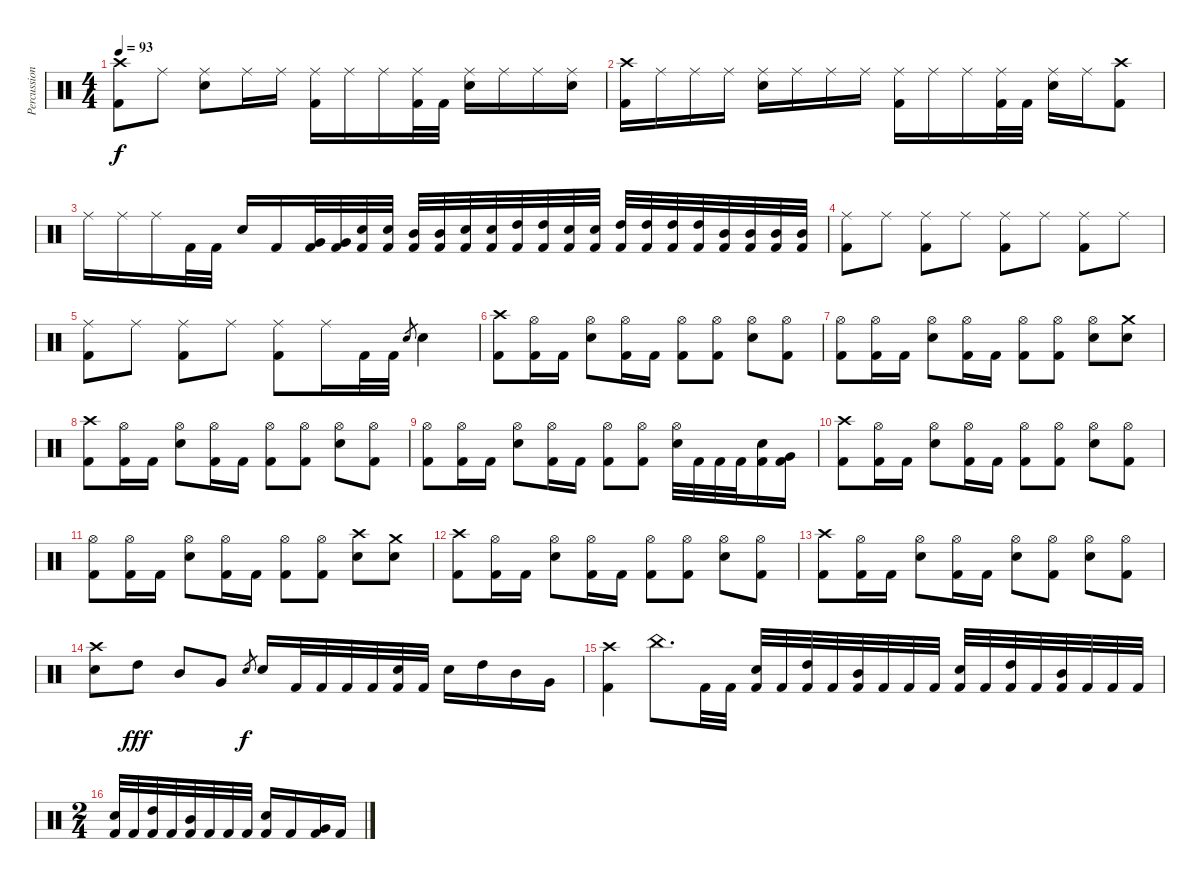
\track ("Percussions" "Percussion") {instrument percussion}
\staff {score}
\articulation defaults
\ts (4 4)
\tempo 93
\clef neutral
\ks c
("Crash high (hit)" "Kick (hit) 2").8{dy f} "Ride (middle)".8 ("Ride (middle)" "Electric Snare (hit)").8 "Ride (middle)".16 "Ride (middle)".16 ("Ride (middle)" "Kick (hit) 2").16 "Ride (middle)".16 "Ride (middle)".16 ("Ride (middle)" "Kick (hit) 2").32 "Kick (hit) 2".32 ("Ride (middle)" "Electric Snare (hit)").16 "Ride (middle)".16 "Ride (middle)".16 ("Ride (middle)" "Electric Snare (hit)").16 |
("Crash high (hit)" "Kick (hit) 2").16 "Ride (middle)".16 "Ride (middle)".16 "Ride (middle)".16 ("Ride (middle)" "Electric Snare (hit)").16 "Ride (middle)".16 "Ride (middle)".16 "Ride (middle)".16 ("Ride (middle)" "Kick (hit) 2").16 "Ride (middle)".16 "Ride (middle)".16 ("Ride (middle)" "Kick (hit) 2").32 "Kick (hit) 2".32 ("Ride (middle)" "Electric Snare (hit)").16 "Ride (middle)".16 ("Crash high (hit)" "Kick (hit) 2").8 |
"Ride (middle)".16 "Ride (middle)".16 "Ride (middle)".16 "Kick (hit) 2".32 "Kick (hit) 2".32 "Electric Snare (hit)".16 "Kick (hit) 2".16 ("Very Low Tom (hit)" "Kick (hit) 2").32 ("Very Low Tom (hit)" "Kick (hit) 2").32 ("Electric Snare (hit)" "Kick (hit) 2").32 ("Electric Snare (hit)" "Kick (hit) 2").32 ("Mid Tom (hit)" "Kick (hit) 2").32 ("Mid Tom (hit)" "Kick (hit) 2").32 ("Electric Snare (hit)" "Kick (hit) 2").32 ("Electric Snare (hit)" "Kick (hit) 2").32 ("High Tom (hit)" "Kick (hit) 2").32 ("High Tom (hit)" "Kick (hit) 2").32 ("Electric Snare (hit)" "Kick (hit) 2").32 ("Electric Snare (hit)" "Kick (hit) 2").32 ("High Tom (hit)" "Kick (hit) 2").32 ("High Tom (hit)" "Kick (hit) 2").32 ("High Tom (hit)" "Kick (hit) 2").32 ("High Tom (hit)" "Kick (hit) 2").32 ("Mid Tom (hit)" "Kick (hit) 2").32 ("Mid Tom (hit)" "Kick (hit) 2").32 ("Mid Tom (hit)" "Kick (hit) 2").32 ("Mid Tom (hit)" "Kick (hit) 2").32 |
("Ride (middle)" "Kick (hit) 2").8 "Ride (middle)".8 ("Ride (middle)" "Kick (hit) 2").8 "Ride (middle)".8 ("Ride (middle)" "Kick (hit) 2").8 "Ride (middle)".8 ("Ride (middle)" "Kick (hit) 2").8 "Ride (middle)".8 |
("Ride (middle)" "Kick (hit) 2").8 "Ride (middle)".8 ("Ride (middle)" "Kick (hit) 2").8 "Ride (middle)".8 ("Ride (middle)" "Kick (hit) 2").8 "Ride (middle)".16 "Kick (hit) 2".32 "Kick (hit) 2".32 "Electric Snare (hit)".8{gr} "Electric Snare (hit)".4 |
("Crash high (hit)" "Kick (hit) 2").8 ("Hi-Hat (open)" "Kick (hit) 2").16 "Kick (hit) 2".16 ("Hi-Hat (open)" "Electric Snare (hit)").8 ("Hi-Hat (open)" "Kick (hit) 2").16 "Kick (hit) 2".16 ("Hi-Hat (open)" "Kick (hit) 2").8 ("Hi-Hat (open)" "Kick (hit) 2").8 ("Hi-Hat (open)" "Electric Snare (hit)").8 ("Hi-Hat (open)" "Kick (hit) 2").8 |
("Hi-Hat (open)" "Kick (hit) 2").8 ("Hi-Hat (open)" "Kick (hit) 2").16 "Kick (hit) 2".16 ("Hi-Hat (open)" "Electric Snare (hit)").8 ("Hi-Hat (open)" "Kick (hit) 2").16 "Kick (hit) 2".16 ("Hi-Hat (open)" "Kick (hit) 2").8 ("Hi-Hat (open)" "Kick (hit) 2").8 ("Hi-Hat (open)" "Electric Snare (hit)").8 ("Crash medium (hit)" "Electric Snare (hit)").8 |
("Crash high (hit)" "Kick (hit) 2").8 ("Hi-Hat (open)" "Kick (hit) 2").16 "Kick (hit) 2".16 ("Hi-Hat (open)" "Electric Snare (hit)").8 ("Hi-Hat (open)" "Kick (hit) 2").16 "Kick (hit) 2".16 ("Hi-Hat (open)" "Kick (hit) 2").8 ("Hi-Hat (open)" "Kick (hit) 2").8 ("Hi-Hat (open)" "Electric Snare (hit)").8 ("Hi-Hat (open)" "Kick (hit) 2").8 |
("Hi-Hat (open)" "Kick (hit) 2").8 ("Hi-Hat (open)" "Kick (hit) 2").16 "Kick (hit) 2".16 ("Hi-Hat (open)" "Electric Snare (hit)").8 ("Hi-Hat (open)" "Kick (hit) 2").16 "Kick (hit) 2".16 ("Hi-Hat (open)" "Kick (hit) 2").8 ("Hi-Hat (open)" "Kick (hit) 2").8 ("Hi-Hat (open)" "Electric Snare (hit)").32 "Kick (hit) 2".32 "Kick (hit) 2".32 "Kick (hit) 2".32 ("Electric Snare (hit)" "Kick (hit) 2").16 ("Very Low Tom (hit)" "Kick (hit) 2").16 |
("Crash high (hit)" "Kick (hit) 2").8 ("Hi-Hat (open)" "Kick (hit) 2").16 "Kick (hit) 2".16 ("Hi-Hat (open)" "Electric Snare (hit)").8 ("Hi-Hat (open)" "Kick (hit) 2").16 "Kick (hit) 2".16 ("Hi-Hat (open)" "Kick (hit) 2").8 ("Hi-Hat (open)" "Kick (hit) 2").8 ("Hi-Hat (open)" "Electric Snare (hit)").8 ("Hi-Hat (open)" "Kick (hit) 2").8 |
("Hi-Hat (open)" "Kick (hit) 2").8 ("Hi-Hat (open)" "Kick (hit) 2").16 "Kick (hit) 2".16 ("Hi-Hat (open)" "Electric Snare (hit)").8 ("Hi-Hat (open)" "Kick (hit) 2").16 "Kick (hit) 2".16 ("Hi-Hat (open)" "Kick (hit) 2").8 ("Hi-Hat (open)" "Kick (hit) 2").8 ("Crash high (hit)" "Electric Snare (hit)").8 ("Crash medium (hit)" "Electric Snare (hit)").8 |
("Crash high (hit)" "Kick (hit) 2").8 ("Hi-Hat (open)" "Kick (hit) 2").16 "Kick (hit) 2".16 ("Hi-Hat (open)" "Electric Snare (hit)").8 ("Hi-Hat (open)" "Kick (hit) 2").16 "Kick (hit) 2".16 ("Hi-Hat (open)" "Kick (hit) 2").8 ("Hi-Hat (open)" "Kick (hit) 2").8 ("Hi-Hat (open)" "Electric Snare (hit)").8 ("Hi-Hat (open)" "Kick (hit) 2").8 |
("Crash high (hit)" "Kick (hit) 2").8 ("Hi-Hat (open)" "Kick (hit) 2").16 "Kick (hit) 2".16 ("Hi-Hat (open)" "Electric Snare (hit)").8 ("Hi-Hat (open)" "Kick (hit) 2").16 "Kick (hit) 2".16 ("Hi-Hat (open)" "Electric Snare (hit)").8 ("Hi-Hat (open)" "Kick (hit) 2").8 ("Hi-Hat (open)" "Electric Snare (hit)").8 ("Hi-Hat (open)" "Kick (hit) 2").8 |
("Crash high (hit)" "Electric Snare (hit)").8 "High Tom (hit)".8{dy fff} "Mid Tom (hit)".8 "Very Low Tom (hit)".8 "Electric Snare (hit)".8{gr dy f} "Electric Snare (hit)".16 "Kick (hit) 2".32 "Kick (hit) 2".32 "Kick (hit) 2".32 "Kick (hit) 2".32 ("Electric Snare (hit)" "Kick (hit) 2").32 "Kick (hit) 2".32 "Electric Snare (hit)".16 "High Tom (hit)".16 "Mid Tom (hit)".16 "Very Low Tom (hit)".16 |
("Crash high (hit)" "Kick (hit) 2").4 "China (hit)".8{d} "Kick (hit) 2".32 "Kick (hit) 2".32 ("Electric Snare (hit)" "Kick (hit) 2").32 "Kick (hit) 2".32 ("High Tom (hit)" "Kick (hit) 2").32 "Kick (hit) 2".32 ("Mid Tom (hit)" "Kick (hit) 2").32 "Kick (hit) 2".32 "Kick (hit) 2".32 "Kick (hit) 2".32 ("Electric Snare (hit)" "Kick (hit) 2").32 "Kick (hit) 2".32 ("High Tom (hit)" "Kick (hit) 2").32 "Kick (hit) 2".32 ("Mid Tom (hit)" "Kick (hit) 2").32 "Kick (hit) 2".32 "Kick (hit) 2".32 "Kick (hit) 2".32 |
\ts (2 4)
("Electric Snare (hit)" "Kick (hit) 2").32 "Kick (hit) 2".32 ("High Tom (hit)" "Kick (hit) 2").32 "Kick (hit) 2".32 ("Mid Tom (hit)" "Kick (hit) 2").32 "Kick (hit) 2".32 "Kick (hit) 2".32 "Kick (hit) 2".32 ("Electric Snare (hit)" "Kick (hit) 2").16 "Kick (hit) 2".16 ("Very Low Tom (hit)" "Kick (hit) 2").16 "Kick (hit) 2".16
